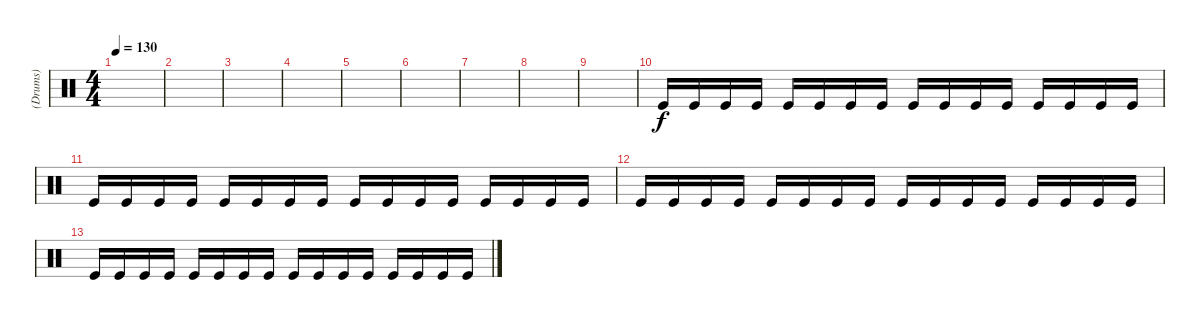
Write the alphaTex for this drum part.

\track ("(Drums)" "(Drums)") {instrument percussion}
\staff {score}
\articulation defaults
\ts (4 4)
\tempo 130
\clef neutral
\ks c
|
|
|
|
|
|
|
|
|
"Kick (hit)".16 "Kick (hit)".16 "Kick (hit)".16 "Kick (hit)".16 "Kick (hit)".16 "Kick (hit)".16 "Kick (hit)".16 "Kick (hit)".16 "Kick (hit)".16 "Kick (hit)".16 "Kick (hit)".16 "Kick (hit)".16 "Kick (hit)".16 "Kick (hit)".16 "Kick (hit)".16 "Kick (hit)".16 |
"Kick (hit)".16 "Kick (hit)".16 "Kick (hit)".16 "Kick (hit)".16 "Kick (hit)".16 "Kick (hit)".16 "Kick (hit)".16 "Kick (hit)".16 "Kick (hit)".16 "Kick (hit)".16 "Kick (hit)".16 "Kick (hit)".16 "Kick (hit)".16 "Kick (hit)".16 "Kick (hit)".16 "Kick (hit)".16 |
"Kick (hit)".16 "Kick (hit)".16 "Kick (hit)".16 "Kick (hit)".16 "Kick (hit)".16 "Kick (hit)".16 "Kick (hit)".16 "Kick (hit)".16 "Kick (hit)".16 "Kick (hit)".16 "Kick (hit)".16 "Kick (hit)".16 "Kick (hit)".16 "Kick (hit)".16 "Kick (hit)".16 "Kick (hit)".16 |
"Kick (hit)".16 "Kick (hit)".16 "Kick (hit)".16 "Kick (hit)".16 "Kick (hit)".16 "Kick (hit)".16 "Kick (hit)".16 "Kick (hit)".16 "Kick (hit)".16 "Kick (hit)".16 "Kick (hit)".16 "Kick (hit)".16 "Kick (hit)".16 "Kick (hit)".16 "Kick (hit)".16 "Kick (hit)".16
